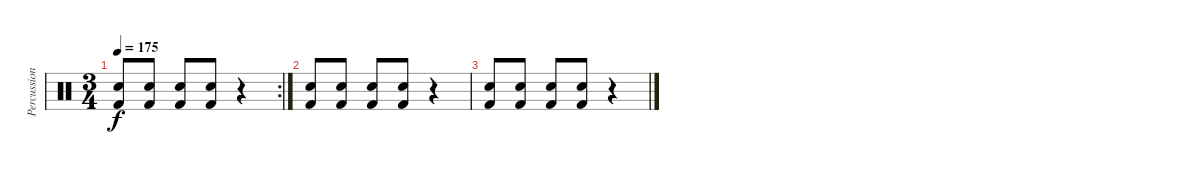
\track ("Percussion" "Percussion") {instrument percussion}
\staff {score}
\articulation defaults
\rc 2
\ts (3 4)
\tempo 175
\clef neutral
\ks c
("Electric Snare (hit)" "Kick (hit) 2").8{dy f} ("Electric Snare (hit)" "Kick (hit) 2").8 ("Electric Snare (hit)" "Kick (hit) 2").8 ("Electric Snare (hit)" "Kick (hit) 2").8 r.4 |
("Electric Snare (hit)" "Kick (hit) 2").8 ("Electric Snare (hit)" "Kick (hit) 2").8 ("Electric Snare (hit)" "Kick (hit) 2").8 ("Electric Snare (hit)" "Kick (hit) 2").8 r.4 |
("Electric Snare (hit)" "Kick (hit) 2").8 ("Electric Snare (hit)" "Kick (hit) 2").8 ("Electric Snare (hit)" "Kick (hit) 2").8 ("Electric Snare (hit)" "Kick (hit) 2").8 r.4
